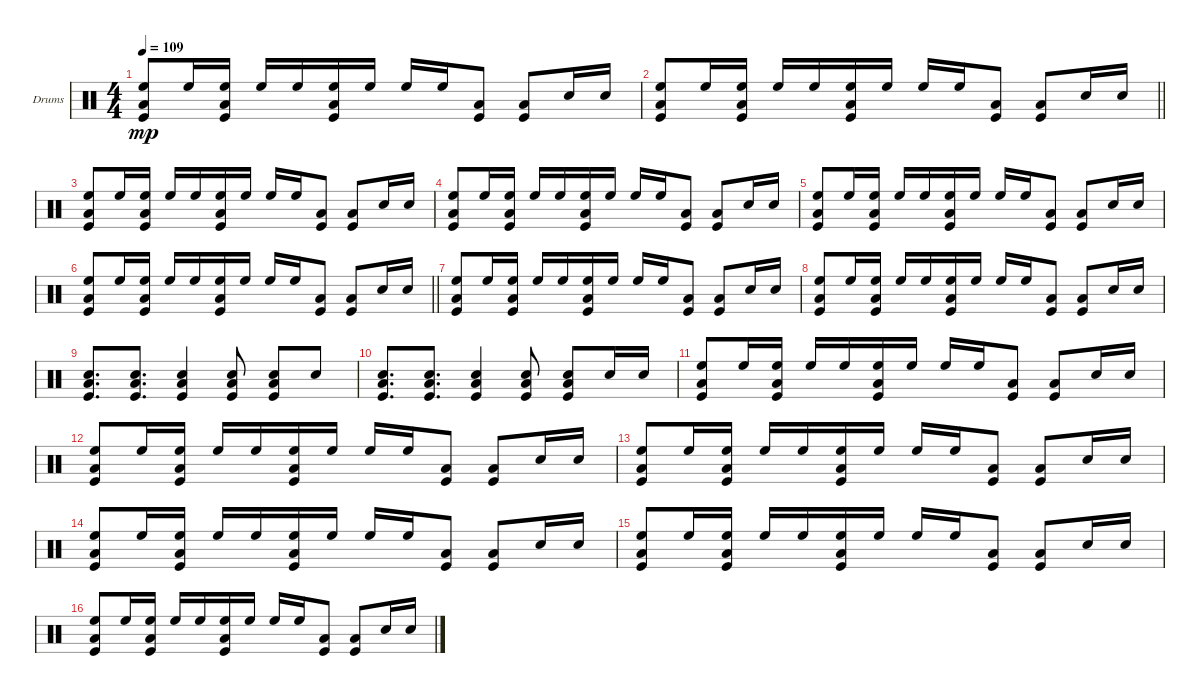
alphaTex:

\defaultSystemsLayout 4
\bracketExtendMode groupsimilarinstruments
\firstSystemTrackNameOrientation horizontal
\otherSystemsTrackNameOrientation horizontal
\track ("Drumkit" "Drums") {instrument percussion}
\staff {score}
\articulation defaults
\ts (4 4)
\tempo 109
\clef neutral
\scale
0.5
\ks c
("Kick (hit)" "Low Tom (hit)" "High Floor Tom (hit)").8{dy mp} "High Floor Tom (hit)".16 ("Kick (hit)" "Low Tom (hit)" "High Floor Tom (hit)").16 "High Floor Tom (hit)".16 "High Floor Tom (hit)".16 ("Kick (hit)" "Low Tom (hit)" "High Floor Tom (hit)").16 "High Floor Tom (hit)".16 "High Floor Tom (hit)".16 "High Floor Tom (hit)".16 ("Kick (hit)" "Low Tom (hit)").8 ("Kick (hit)" "Low Tom (hit)").8 "Snare (hit) 2".16 "Snare (hit) 2".16 |
\scale
0.5
\barLineRight lightlight
("Kick (hit)" "Low Tom (hit)" "High Floor Tom (hit)").8 "High Floor Tom (hit)".16 ("Kick (hit)" "Low Tom (hit)" "High Floor Tom (hit)").16 "High Floor Tom (hit)".16 "High Floor Tom (hit)".16 ("Kick (hit)" "Low Tom (hit)" "High Floor Tom (hit)").16 "High Floor Tom (hit)".16 "High Floor Tom (hit)".16 "High Floor Tom (hit)".16 ("Kick (hit)" "Low Tom (hit)").8 ("Kick (hit)" "Low Tom (hit)").8 "Snare (hit) 2".16 "Snare (hit) 2".16 |
\scale
0.480938 ("Kick (hit)" "Low Tom (hit)" "High Floor Tom (hit)").8 "High Floor Tom (hit)".16 ("Kick (hit)" "Low Tom (hit)" "High Floor Tom (hit)").16 "High Floor Tom (hit)".16 "High Floor Tom (hit)".16 ("Kick (hit)" "Low Tom (hit)" "High Floor Tom (hit)").16 "High Floor Tom (hit)".16 "High Floor Tom (hit)".16 "High Floor Tom (hit)".16 ("Kick (hit)" "Low Tom (hit)").8 ("Kick (hit)" "Low Tom (hit)").8 "Snare (hit) 2".16 "Snare (hit) 2".16 |
\scale
0.519062 ("Kick (hit)" "Low Tom (hit)" "High Floor Tom (hit)").8 "High Floor Tom (hit)".16 ("Kick (hit)" "Low Tom (hit)" "High Floor Tom (hit)").16 "High Floor Tom (hit)".16 "High Floor Tom (hit)".16 ("Kick (hit)" "Low Tom (hit)" "High Floor Tom (hit)").16 "High Floor Tom (hit)".16 "High Floor Tom (hit)".16 "High Floor Tom (hit)".16 ("Kick (hit)" "Low Tom (hit)").8 ("Kick (hit)" "Low Tom (hit)").8 "Snare (hit) 2".16 "Snare (hit) 2".16 |
\scale
0.480938 ("Kick (hit)" "Low Tom (hit)" "High Floor Tom (hit)").8 "High Floor Tom (hit)".16 ("Kick (hit)" "Low Tom (hit)" "High Floor Tom (hit)").16 "High Floor Tom (hit)".16 "High Floor Tom (hit)".16 ("Kick (hit)" "Low Tom (hit)" "High Floor Tom (hit)").16 "High Floor Tom (hit)".16 "High Floor Tom (hit)".16 "High Floor Tom (hit)".16 ("Kick (hit)" "Low Tom (hit)").8 ("Kick (hit)" "Low Tom (hit)").8 "Snare (hit) 2".16 "Snare (hit) 2".16 |
\scale
0.519062
\barLineRight lightlight
("Kick (hit)" "Low Tom (hit)" "High Floor Tom (hit)").8 "High Floor Tom (hit)".16 ("Kick (hit)" "Low Tom (hit)" "High Floor Tom (hit)").16 "High Floor Tom (hit)".16 "High Floor Tom (hit)".16 ("Kick (hit)" "Low Tom (hit)" "High Floor Tom (hit)").16 "High Floor Tom (hit)".16 "High Floor Tom (hit)".16 "High Floor Tom (hit)".16 ("Kick (hit)" "Low Tom (hit)").8 ("Kick (hit)" "Low Tom (hit)").8 "Snare (hit) 2".16 "Snare (hit) 2".16 |
\scale
0.5 ("Kick (hit)" "Low Tom (hit)" "High Floor Tom (hit)").8 "High Floor Tom (hit)".16 ("Kick (hit)" "Low Tom (hit)" "High Floor Tom (hit)").16 "High Floor Tom (hit)".16 "High Floor Tom (hit)".16 ("Kick (hit)" "Low Tom (hit)" "High Floor Tom (hit)").16 "High Floor Tom (hit)".16 "High Floor Tom (hit)".16 "High Floor Tom (hit)".16 ("Kick (hit)" "Low Tom (hit)").8 ("Kick (hit)" "Low Tom (hit)").8 "Snare (hit) 2".16 "Snare (hit) 2".16 |
\scale
0.5 ("Kick (hit)" "Low Tom (hit)" "High Floor Tom (hit)").8 "High Floor Tom (hit)".16 ("Kick (hit)" "Low Tom (hit)" "High Floor Tom (hit)").16 "High Floor Tom (hit)".16 "High Floor Tom (hit)".16 ("Kick (hit)" "Low Tom (hit)" "High Floor Tom (hit)").16 "High Floor Tom (hit)".16 "High Floor Tom (hit)".16 "High Floor Tom (hit)".16 ("Kick (hit)" "Low Tom (hit)").8 ("Kick (hit)" "Low Tom (hit)").8 "Snare (hit) 2".16 "Snare (hit) 2".16 |
("Kick (hit)" "Low Tom (hit)" "Snare (hit) 2").8{d} ("Kick (hit)" "Low Tom (hit)" "Snare (hit) 2").8{d} ("Kick (hit)" "Low Tom (hit)" "Snare (hit) 2").4 ("Kick (hit)" "Low Tom (hit)" "Snare (hit) 2").8 ("Kick (hit)" "Low Tom (hit)" "Snare (hit) 2").8 "Snare (hit) 2".8 |
("Kick (hit)" "Low Tom (hit)" "Snare (hit) 2").8{d} ("Kick (hit)" "Low Tom (hit)" "Snare (hit) 2").8{d} ("Kick (hit)" "Low Tom (hit)" "Snare (hit) 2").4 ("Kick (hit)" "Low Tom (hit)" "Snare (hit) 2").8 ("Kick (hit)" "Low Tom (hit)" "Snare (hit) 2").8 "Snare (hit) 2".16 "Snare (hit) 2".16 |
("Kick (hit)" "Low Tom (hit)" "High Floor Tom (hit)").8 "High Floor Tom (hit)".16 ("Kick (hit)" "Low Tom (hit)" "High Floor Tom (hit)").16 "High Floor Tom (hit)".16 "High Floor Tom (hit)".16 ("Kick (hit)" "Low Tom (hit)" "High Floor Tom (hit)").16 "High Floor Tom (hit)".16 "High Floor Tom (hit)".16 "High Floor Tom (hit)".16 ("Kick (hit)" "Low Tom (hit)").8 ("Kick (hit)" "Low Tom (hit)").8 "Snare (hit) 2".16 "Snare (hit) 2".16 |
("Kick (hit)" "Low Tom (hit)" "High Floor Tom (hit)").8 "High Floor Tom (hit)".16 ("Kick (hit)" "Low Tom (hit)" "High Floor Tom (hit)").16 "High Floor Tom (hit)".16 "High Floor Tom (hit)".16 ("Kick (hit)" "Low Tom (hit)" "High Floor Tom (hit)").16 "High Floor Tom (hit)".16 "High Floor Tom (hit)".16 "High Floor Tom (hit)".16 ("Kick (hit)" "Low Tom (hit)").8 ("Kick (hit)" "Low Tom (hit)").8 "Snare (hit) 2".16 "Snare (hit) 2".16 |
("Kick (hit)" "Low Tom (hit)" "High Floor Tom (hit)").8 "High Floor Tom (hit)".16 ("Kick (hit)" "Low Tom (hit)" "High Floor Tom (hit)").16 "High Floor Tom (hit)".16 "High Floor Tom (hit)".16 ("Kick (hit)" "Low Tom (hit)" "High Floor Tom (hit)").16 "High Floor Tom (hit)".16 "High Floor Tom (hit)".16 "High Floor Tom (hit)".16 ("Kick (hit)" "Low Tom (hit)").8 ("Kick (hit)" "Low Tom (hit)").8 "Snare (hit) 2".16 "Snare (hit) 2".16 |
("Kick (hit)" "Low Tom (hit)" "High Floor Tom (hit)").8 "High Floor Tom (hit)".16 ("Kick (hit)" "Low Tom (hit)" "High Floor Tom (hit)").16 "High Floor Tom (hit)".16 "High Floor Tom (hit)".16 ("Kick (hit)" "Low Tom (hit)" "High Floor Tom (hit)").16 "High Floor Tom (hit)".16 "High Floor Tom (hit)".16 "High Floor Tom (hit)".16 ("Kick (hit)" "Low Tom (hit)").8 ("Kick (hit)" "Low Tom (hit)").8 "Snare (hit) 2".16 "Snare (hit) 2".16 |
("Kick (hit)" "Low Tom (hit)" "High Floor Tom (hit)").8 "High Floor Tom (hit)".16 ("Kick (hit)" "Low Tom (hit)" "High Floor Tom (hit)").16 "High Floor Tom (hit)".16 "High Floor Tom (hit)".16 ("Kick (hit)" "Low Tom (hit)" "High Floor Tom (hit)").16 "High Floor Tom (hit)".16 "High Floor Tom (hit)".16 "High Floor Tom (hit)".16 ("Kick (hit)" "Low Tom (hit)").8 ("Kick (hit)" "Low Tom (hit)").8 "Snare (hit) 2".16 "Snare (hit) 2".16 |
("Kick (hit)" "Low Tom (hit)" "High Floor Tom (hit)").8 "High Floor Tom (hit)".16 ("Kick (hit)" "Low Tom (hit)" "High Floor Tom (hit)").16 "High Floor Tom (hit)".16 "High Floor Tom (hit)".16 ("Kick (hit)" "Low Tom (hit)" "High Floor Tom (hit)").16 "High Floor Tom (hit)".16 "High Floor Tom (hit)".16 "High Floor Tom (hit)".16 ("Kick (hit)" "Low Tom (hit)").8 ("Kick (hit)" "Low Tom (hit)").8 "Snare (hit) 2".16 "Snare (hit) 2".16
